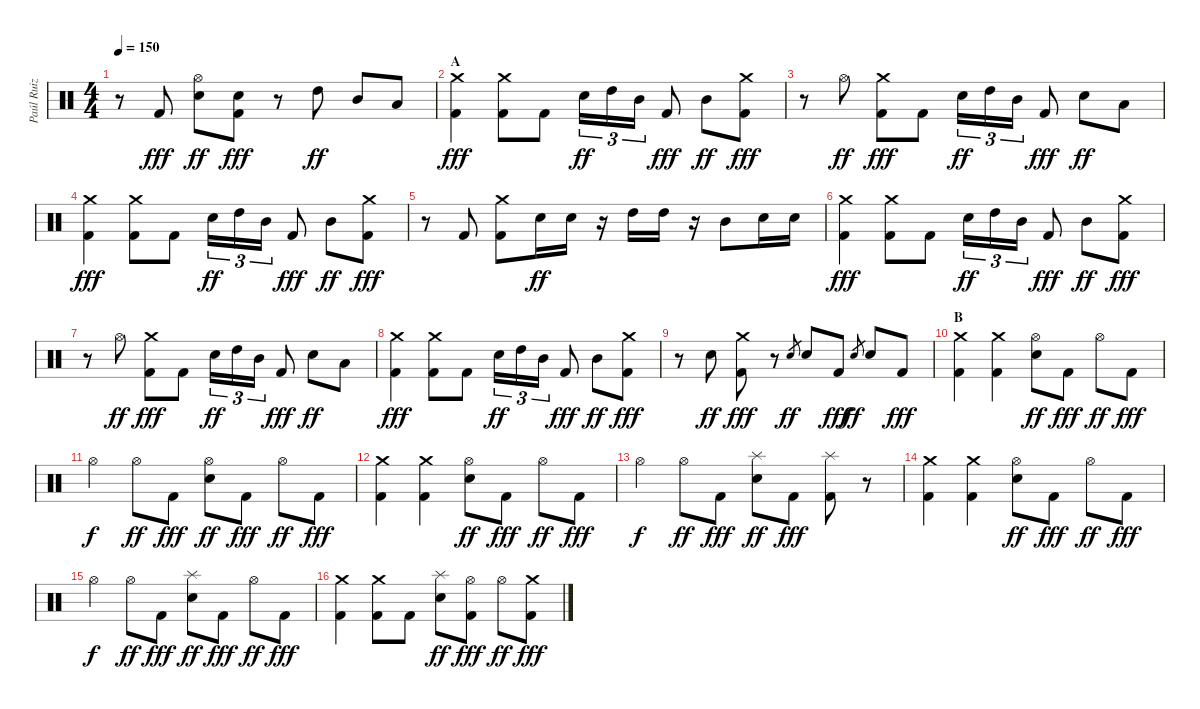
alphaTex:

\track ("Paúl Ruiz" "Paúl Ruiz") {instrument percussion}
\staff {score}
\articulation defaults
\ts (4 4)
\tempo 150
\clef neutral
\ks c
r.8{dy fff} "Kick (hit) 2".8 ("Hi-Hat (open)" "Snare (hit) 2").8{dy ff} ("Snare (hit) 2" "Kick (hit) 2").8{dy fff} r.8 "High Tom (hit)".8{dy ff} "Mid Tom (hit)".8 "Low Tom (hit)".8 |
\section ("" "A")
("Crash medium (hit)" "Kick (hit) 2").4{dy fff} ("Crash medium (hit)" "Kick (hit) 2").8 "Kick (hit) 2".8 "Snare (hit) 2".16{tu (3 2) dy ff} "High Tom (hit)".16{tu (3 2)} "Mid Tom (hit)".16{tu (3 2)} "Kick (hit) 2".8{dy fff} "Mid Tom (hit)".8{dy ff} ("Crash medium (hit)" "Kick (hit) 2").8{dy fff} |
r.8 "Hi-Hat (open)".8{dy ff} ("Crash medium (hit)" "Kick (hit) 2").8{dy fff} "Kick (hit) 2".8 "Snare (hit) 2".16{tu (3 2) dy ff} "High Tom (hit)".16{tu (3 2)} "Mid Tom (hit)".16{tu (3 2)} "Kick (hit) 2".8{dy fff} "Snare (hit) 2".8{dy ff} "Low Tom (hit)".8 |
("Crash medium (hit)" "Kick (hit) 2").4{dy fff} ("Crash medium (hit)" "Kick (hit) 2").8 "Kick (hit) 2".8 "Snare (hit) 2".16{tu (3 2) dy ff} "High Tom (hit)".16{tu (3 2)} "Mid Tom (hit)".16{tu (3 2)} "Kick (hit) 2".8{dy fff} "Mid Tom (hit)".8{dy ff} ("Crash medium (hit)" "Kick (hit) 2").8{dy fff} |
r.8 "Kick (hit) 2".8 ("Crash medium (hit)" "Kick (hit) 2").8 "Snare (hit) 2".16{dy ff} "Snare (hit) 2".16 r.16 "High Tom (hit)".16 "High Tom (hit)".16 r.16 "Mid Tom (hit)".8 "Snare (hit) 2".16 "Snare (hit) 2".16 |
("Crash medium (hit)" "Kick (hit) 2").4{dy fff} ("Crash medium (hit)" "Kick (hit) 2").8 "Kick (hit) 2".8 "Snare (hit) 2".16{tu (3 2) dy ff} "High Tom (hit)".16{tu (3 2)} "Mid Tom (hit)".16{tu (3 2)} "Kick (hit) 2".8{dy fff} "Mid Tom (hit)".8{dy ff} ("Crash medium (hit)" "Kick (hit) 2").8{dy fff} |
r.8 "Hi-Hat (open)".8{dy ff} ("Crash medium (hit)" "Kick (hit) 2").8{dy fff} "Kick (hit) 2".8 "Snare (hit) 2".16{tu (3 2) dy ff} "High Tom (hit)".16{tu (3 2)} "Mid Tom (hit)".16{tu (3 2)} "Kick (hit) 2".8{dy fff} "Snare (hit) 2".8{dy ff} "Low Tom (hit)".8 |
("Crash medium (hit)" "Kick (hit) 2").4{dy fff} ("Crash medium (hit)" "Kick (hit) 2").8 "Kick (hit) 2".8 "Snare (hit) 2".16{tu (3 2) dy ff} "High Tom (hit)".16{tu (3 2)} "Mid Tom (hit)".16{tu (3 2)} "Kick (hit) 2".8{dy fff} "Mid Tom (hit)".8{dy ff} ("Crash medium (hit)" "Kick (hit) 2").8{dy fff} |
r.8 "Snare (hit) 2".8{dy ff} ("Crash medium (hit)" "Kick (hit) 2").8{dy fff} r.8 "Snare (hit) 2".8{gr dy ff} "Snare (hit) 2".8 "Kick (hit) 2".8{dy fff} "Snare (hit) 2".8{gr dy ff} "Snare (hit) 2".8 "Kick (hit) 2".8{dy fff} |
\section ("" "B")
("Crash medium (hit)" "Kick (hit) 2").4 ("Crash medium (hit)" "Kick (hit) 2").4 ("Hi-Hat (open)" "Snare (hit) 2").8{dy ff} "Kick (hit) 2".8{dy fff} "Hi-Hat (open)".8{dy ff} "Kick (hit) 2".8{dy fff} |
"Hi-Hat (open)".4{dy f} "Hi-Hat (open)".8{dy ff} "Kick (hit) 2".8{dy fff} ("Hi-Hat (open)" "Snare (hit) 2").8{dy ff} "Kick (hit) 2".8{dy fff} "Hi-Hat (open)".8{dy ff} "Kick (hit) 2".8{dy fff} |
("Crash medium (hit)" "Kick (hit) 2").4 ("Crash medium (hit)" "Kick (hit) 2").4 ("Hi-Hat (open)" "Snare (hit) 2").8{dy ff} "Kick (hit) 2".8{dy fff} "Hi-Hat (open)".8{dy ff} "Kick (hit) 2".8{dy fff} |
"Hi-Hat (open)".4{dy f} "Hi-Hat (open)".8{dy ff} "Kick (hit) 2".8{dy fff} ("Splash (hit)" "Snare (hit) 2").8{dy ff} "Kick (hit) 2".8{dy fff} ("Splash (hit)" "Kick (hit) 2").8 r.8 |
("Crash medium (hit)" "Kick (hit) 2").4 ("Crash medium (hit)" "Kick (hit) 2").4 ("Hi-Hat (open)" "Snare (hit) 2").8{dy ff} "Kick (hit) 2".8{dy fff} "Hi-Hat (open)".8{dy ff} "Kick (hit) 2".8{dy fff} |
"Hi-Hat (open)".4{dy f} "Hi-Hat (open)".8{dy ff} "Kick (hit) 2".8{dy fff} ("Splash (hit)" "Snare (hit) 2").8{dy ff} "Kick (hit) 2".8{dy fff} "Hi-Hat (open)".8{dy ff} "Kick (hit) 2".8{dy fff} |
("Crash medium (hit)" "Kick (hit) 2").4 ("Crash medium (hit)" "Kick (hit) 2").8 "Kick (hit) 2".8 ("Splash (hit)" "Snare (hit) 2").8{dy ff} ("Hi-Hat (open)" "Kick (hit) 2").8{dy fff} "Hi-Hat (open)".8{dy ff} ("Crash medium (hit)" "Kick (hit) 2").8{dy fff}
